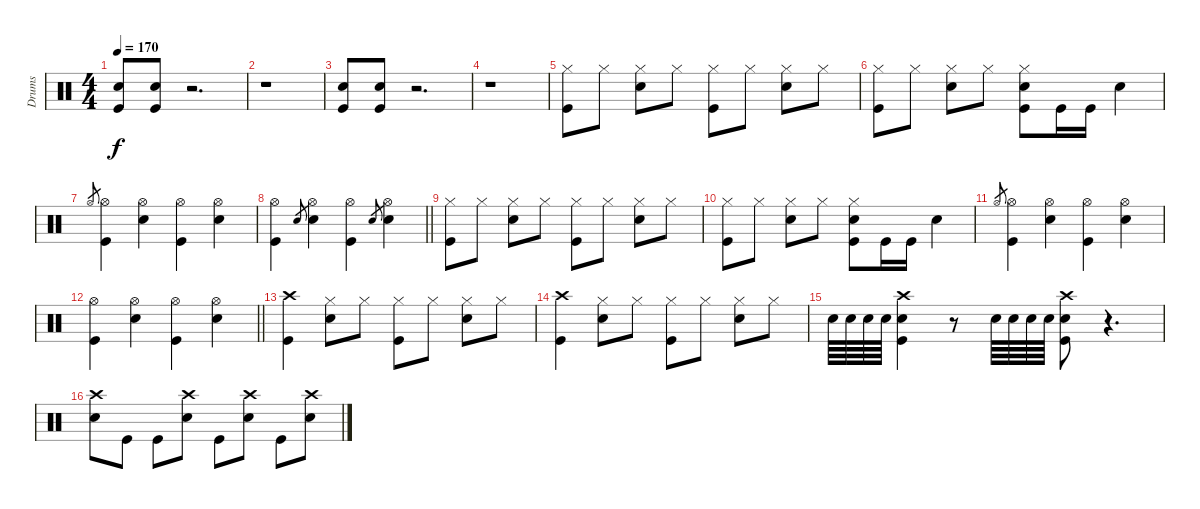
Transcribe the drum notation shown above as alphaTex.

\track ("Drums" "Drums") {instrument percussion}
\staff {score}
\articulation defaults
\ts (4 4)
\tempo 170
\clef neutral
\ks c
("Snare (hit) 2" "Kick (hit)").8{dy f} ("Snare (hit) 2" "Kick (hit)").8 r.2{d} |
r.1 |
("Snare (hit) 2" "Kick (hit)").8 ("Snare (hit) 2" "Kick (hit)").8 r.2{d} |
r.1 |
("Hi-Hat (closed)" "Kick (hit)").8 "Hi-Hat (closed)".8 ("Hi-Hat (closed)" "Snare (hit) 2").8 "Hi-Hat (closed)".8 ("Hi-Hat (closed)" "Kick (hit)").8 "Hi-Hat (closed)".8 ("Hi-Hat (closed)" "Snare (hit) 2").8 "Hi-Hat (closed)".8 |
("Hi-Hat (closed)" "Kick (hit)").8 "Hi-Hat (closed)".8 ("Hi-Hat (closed)" "Snare (hit) 2").8 "Hi-Hat (closed)".8 ("Hi-Hat (closed)" "Snare (hit) 2" "Kick (hit)").8 "Kick (hit)".16 "Kick (hit)".16 "Snare (hit) 2".4 |
"Hi-Hat (open)".8{gr} ("Hi-Hat (open)" "Kick (hit)").4 ("Hi-Hat (open)" "Snare (hit) 2").4 ("Hi-Hat (open)" "Kick (hit)").4 ("Hi-Hat (open)" "Snare (hit) 2").4 |
\barLineRight lightlight
("Hi-Hat (open)" "Kick (hit)").4 "Snare (hit) 2".8{gr} ("Hi-Hat (open)" "Snare (hit) 2").4 ("Hi-Hat (open)" "Kick (hit)").4 "Snare (hit) 2".8{gr} ("Hi-Hat (open)" "Snare (hit) 2").4 |
("Hi-Hat (closed)" "Kick (hit)").8 "Hi-Hat (closed)".8 ("Hi-Hat (closed)" "Snare (hit) 2").8 "Hi-Hat (closed)".8 ("Hi-Hat (closed)" "Kick (hit)").8 "Hi-Hat (closed)".8 ("Hi-Hat (closed)" "Snare (hit) 2").8 "Hi-Hat (closed)".8 |
("Hi-Hat (closed)" "Kick (hit)").8 "Hi-Hat (closed)".8 ("Hi-Hat (closed)" "Snare (hit) 2").8 "Hi-Hat (closed)".8 ("Hi-Hat (closed)" "Snare (hit) 2" "Kick (hit)").8 "Kick (hit)".16 "Kick (hit)".16 "Snare (hit) 2".4 |
"Hi-Hat (open)".8{gr} ("Hi-Hat (open)" "Kick (hit)").4 ("Hi-Hat (open)" "Snare (hit) 2").4 ("Hi-Hat (open)" "Kick (hit)").4 ("Hi-Hat (open)" "Snare (hit) 2").4 |
\barLineRight lightlight
("Hi-Hat (open)" "Kick (hit)").4 ("Hi-Hat (open)" "Snare (hit) 2").4 ("Hi-Hat (open)" "Kick (hit)").4 ("Hi-Hat (open)" "Snare (hit) 2").4 |
("Crash high (hit)" "Kick (hit)").4 ("Hi-Hat (closed)" "Snare (hit) 2").8 "Hi-Hat (closed)".8 ("Hi-Hat (closed)" "Kick (hit)").8 "Hi-Hat (closed)".8 ("Hi-Hat (closed)" "Snare (hit) 2").8 "Hi-Hat (closed)".8 |
("Crash high (hit)" "Kick (hit)").4 ("Hi-Hat (closed)" "Snare (hit) 2").8 "Hi-Hat (closed)".8 ("Hi-Hat (closed)" "Kick (hit)").8 "Hi-Hat (closed)".8 ("Hi-Hat (closed)" "Snare (hit) 2").8 "Hi-Hat (closed)".8 |
"Snare (hit) 2".64 "Snare (hit) 2".64 "Snare (hit) 2".64 "Snare (hit) 2".64 ("Crash high (hit)" "Snare (hit) 2" "Kick (hit)").4 r.8 "Snare (hit) 2".64 "Snare (hit) 2".64 "Snare (hit) 2".64 "Snare (hit) 2".64 ("Crash high (hit)" "Snare (hit) 2" "Kick (hit)").8 r.4{d} |
("Crash high (hit)" "Snare (hit) 2").8 "Kick (hit)".8 "Kick (hit)".8 ("Crash high (hit)" "Snare (hit) 2").8 "Kick (hit)".8 ("Crash high (hit)" "Snare (hit) 2").8 "Kick (hit)".8 ("Crash high (hit)" "Snare (hit) 2").8
